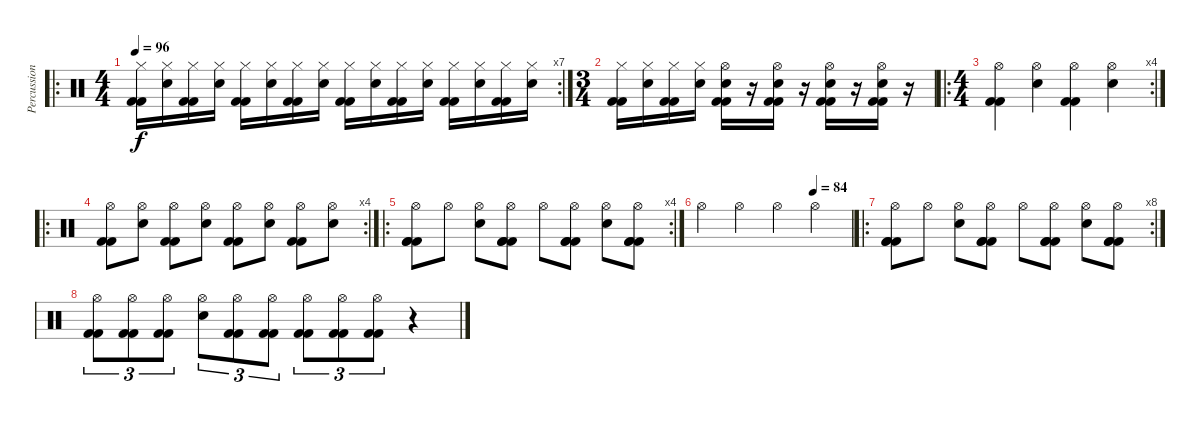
\track ("Percussion" "Percussion") {instrument percussion}
\staff {score}
\articulation defaults
\ro
\rc 7
\ts (4 4)
\tempo 96
\clef neutral
\ks c
("Hi-Hat (closed)" "Kick (hit) 2" "Kick (hit) 2").16{dy f} ("Hi-Hat (closed)" "Snare (hit) 2").16 ("Hi-Hat (closed)" "Kick (hit) 2" "Kick (hit) 2").16 ("Hi-Hat (closed)" "Snare (hit) 2").16 ("Hi-Hat (closed)" "Kick (hit) 2" "Kick (hit) 2").16 ("Hi-Hat (closed)" "Snare (hit) 2").16 ("Hi-Hat (closed)" "Kick (hit) 2" "Kick (hit) 2").16 ("Hi-Hat (closed)" "Snare (hit) 2").16 ("Hi-Hat (closed)" "Kick (hit) 2" "Kick (hit) 2").16 ("Hi-Hat (closed)" "Snare (hit) 2").16 ("Hi-Hat (closed)" "Kick (hit) 2" "Kick (hit) 2").16 ("Hi-Hat (closed)" "Snare (hit) 2").16 ("Hi-Hat (closed)" "Kick (hit) 2" "Kick (hit) 2").16 ("Hi-Hat (closed)" "Snare (hit) 2").16 ("Hi-Hat (closed)" "Kick (hit) 2" "Kick (hit) 2").16 ("Hi-Hat (closed)" "Snare (hit) 2").16 |
\ts (3 4)
("Hi-Hat (closed)" "Kick (hit) 2" "Kick (hit) 2").16 ("Hi-Hat (closed)" "Snare (hit) 2").16 ("Hi-Hat (closed)" "Kick (hit) 2" "Kick (hit) 2").16 ("Hi-Hat (closed)" "Snare (hit) 2").16 ("Hi-Hat (open)" "Snare (hit) 2" "Kick (hit) 2" "Kick (hit) 2").16 r.16 ("Hi-Hat (open)" "Snare (hit) 2" "Kick (hit) 2" "Kick (hit) 2").16 r.16 ("Hi-Hat (open)" "Snare (hit) 2" "Kick (hit) 2" "Kick (hit) 2").16 r.16 ("Hi-Hat (open)" "Snare (hit) 2" "Kick (hit) 2" "Kick (hit) 2").16 r.16 |
\ro
\rc 4
\ts (4 4)
("Hi-Hat (open)" "Kick (hit) 2" "Kick (hit) 2").4 ("Hi-Hat (open)" "Snare (hit) 2").4 ("Hi-Hat (open)" "Kick (hit) 2" "Kick (hit) 2").4 ("Hi-Hat (open)" "Snare (hit) 2").4 |
\ro
\rc 4
("Hi-Hat (open)" "Kick (hit) 2" "Kick (hit) 2").8 ("Hi-Hat (open)" "Snare (hit) 2").8 ("Hi-Hat (open)" "Kick (hit) 2" "Kick (hit) 2").8 ("Hi-Hat (open)" "Snare (hit) 2").8 ("Hi-Hat (open)" "Kick (hit) 2" "Kick (hit) 2").8 ("Hi-Hat (open)" "Snare (hit) 2").8 ("Hi-Hat (open)" "Kick (hit) 2" "Kick (hit) 2").8 ("Hi-Hat (open)" "Snare (hit) 2").8 |
\ro
\rc 4
("Hi-Hat (open)" "Kick (hit) 2" "Kick (hit) 2" "Kick (hit) 2").8 "Hi-Hat (open)".8 ("Hi-Hat (open)" "Snare (hit) 2").8 ("Hi-Hat (open)" "Kick (hit) 2" "Kick (hit) 2" "Kick (hit) 2").8 "Hi-Hat (open)".8 ("Hi-Hat (open)" "Kick (hit) 2" "Kick (hit) 2" "Kick (hit) 2").8 ("Hi-Hat (open)" "Snare (hit) 2").8 ("Hi-Hat (open)" "Kick (hit) 2" "Kick (hit) 2" "Kick (hit) 2").8 |
\tempo (84 0.75)
"Hi-Hat (open)".4 "Hi-Hat (open)".4 "Hi-Hat (open)".4 "Hi-Hat (open)".4 |
\ro
\rc 8
("Hi-Hat (open)" "Kick (hit) 2" "Kick (hit) 2" "Kick (hit) 2").8 "Hi-Hat (open)".8 ("Hi-Hat (open)" "Snare (hit) 2").8 ("Hi-Hat (open)" "Kick (hit) 2" "Kick (hit) 2" "Kick (hit) 2").8 "Hi-Hat (open)".8 ("Hi-Hat (open)" "Kick (hit) 2" "Kick (hit) 2" "Kick (hit) 2").8 ("Hi-Hat (open)" "Snare (hit) 2").8 ("Hi-Hat (open)" "Kick (hit) 2" "Kick (hit) 2" "Kick (hit) 2").8 |
("Hi-Hat (open)" "Kick (hit) 2" "Kick (hit) 2").8{tu (3 2)} ("Hi-Hat (open)" "Kick (hit) 2" "Kick (hit) 2").8{tu (3 2)} ("Hi-Hat (open)" "Kick (hit) 2" "Kick (hit) 2").8{tu (3 2)} ("Hi-Hat (open)" "Snare (hit) 2").8{tu (3 2)} ("Hi-Hat (open)" "Kick (hit) 2" "Kick (hit) 2").8{tu (3 2)} ("Hi-Hat (open)" "Kick (hit) 2" "Kick (hit) 2").8{tu (3 2)} ("Hi-Hat (open)" "Kick (hit) 2" "Kick (hit) 2").8{tu (3 2)} ("Hi-Hat (open)" "Kick (hit) 2" "Kick (hit) 2").8{tu (3 2)} ("Hi-Hat (open)" "Kick (hit) 2" "Kick (hit) 2").8{tu (3 2)} r.4
